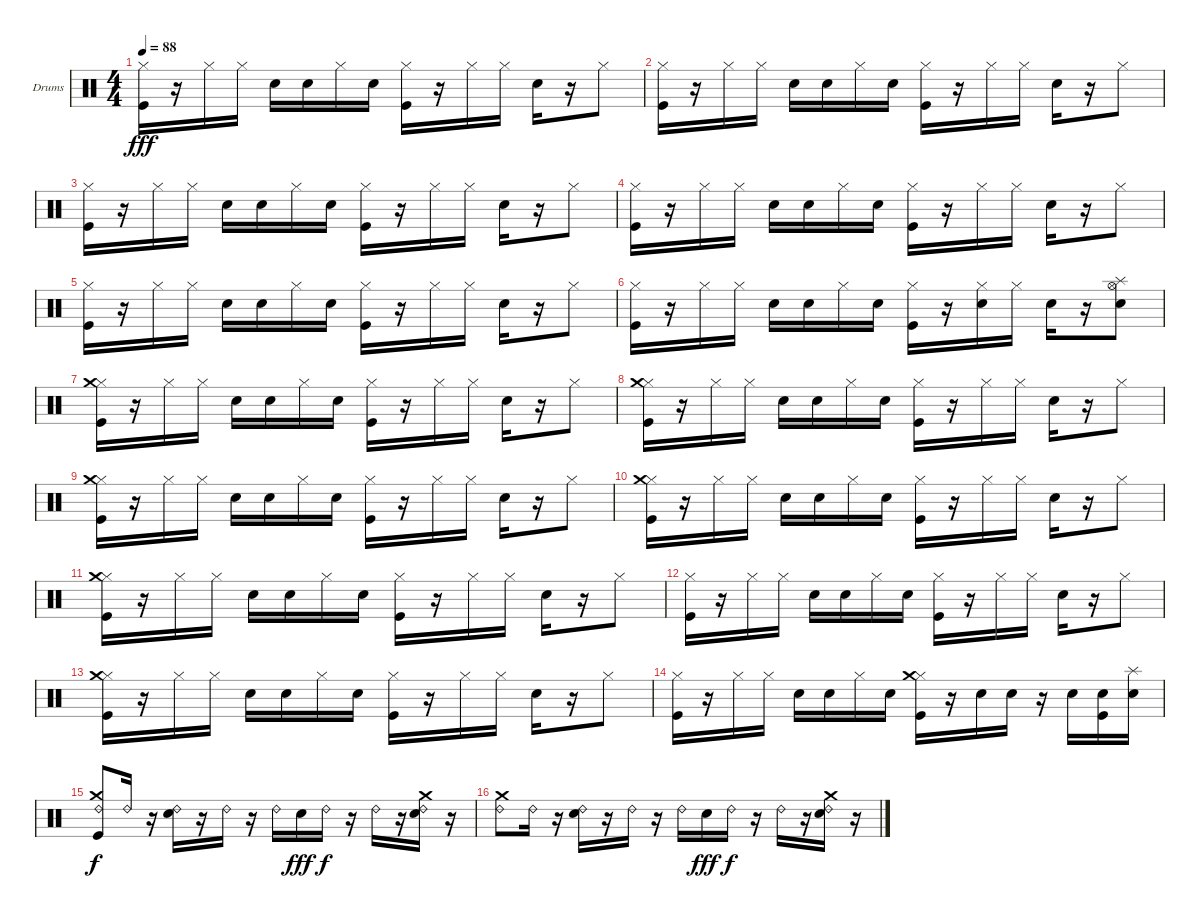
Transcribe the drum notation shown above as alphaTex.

\defaultSystemsLayout 4
\bracketExtendMode groupsimilarinstruments
\firstSystemTrackNameOrientation horizontal
\otherSystemsTrackNameOrientation horizontal
\track ("Drumkit" "Drums") {instrument percussion}
\staff {score}
\articulation defaults
\ts (4 4)
\tempo 88
\clef neutral
\ks c
("Hi-Hat (closed)" "Kick (hit)").16{dy fff} r.16 "Hi-Hat (closed)".16 "Hi-Hat (closed)".16 "Snare (hit) 2".16 "Snare (hit) 2".16 "Hi-Hat (closed)".16 "Snare (hit) 2".16 ("Hi-Hat (closed)" "Kick (hit)").16 r.16 "Hi-Hat (closed)".16 "Hi-Hat (closed)".16 "Snare (hit) 2".16 r.16 "Hi-Hat (closed)".8 |
("Hi-Hat (closed)" "Kick (hit)").16 r.16 "Hi-Hat (closed)".16 "Hi-Hat (closed)".16 "Snare (hit) 2".16 "Snare (hit) 2".16 "Hi-Hat (closed)".16 "Snare (hit) 2".16 ("Hi-Hat (closed)" "Kick (hit)").16 r.16 "Hi-Hat (closed)".16 "Hi-Hat (closed)".16 "Snare (hit) 2".16 r.16 "Hi-Hat (closed)".8 |
("Hi-Hat (closed)" "Kick (hit)").16 r.16 "Hi-Hat (closed)".16 "Hi-Hat (closed)".16 "Snare (hit) 2".16 "Snare (hit) 2".16 "Hi-Hat (closed)".16 "Snare (hit) 2".16 ("Hi-Hat (closed)" "Kick (hit)").16 r.16 "Hi-Hat (closed)".16 "Hi-Hat (closed)".16 "Snare (hit) 2".16 r.16 "Hi-Hat (closed)".8 |
("Hi-Hat (closed)" "Kick (hit)").16 r.16 "Hi-Hat (closed)".16 "Hi-Hat (closed)".16 "Snare (hit) 2".16 "Snare (hit) 2".16 "Hi-Hat (closed)".16 "Snare (hit) 2".16 ("Hi-Hat (closed)" "Kick (hit)").16 r.16 "Hi-Hat (closed)".16 "Hi-Hat (closed)".16 "Snare (hit) 2".16 r.16 "Hi-Hat (closed)".8 |
("Hi-Hat (closed)" "Kick (hit)").16 r.16 "Hi-Hat (closed)".16 "Hi-Hat (closed)".16 "Snare (hit) 2".16 "Snare (hit) 2".16 "Hi-Hat (closed)".16 "Snare (hit) 2".16 ("Hi-Hat (closed)" "Kick (hit)").16 r.16 "Hi-Hat (closed)".16 "Hi-Hat (closed)".16 "Snare (hit) 2".16 r.16 "Hi-Hat (closed)".8 |
("Hi-Hat (closed)" "Kick (hit)").16 r.16 "Hi-Hat (closed)".16 "Hi-Hat (closed)".16 "Snare (hit) 2".16 "Snare (hit) 2".16 "Hi-Hat (closed)".16 "Snare (hit) 2".16 ("Hi-Hat (closed)" "Kick (hit)").16 r.16 ("Hi-Hat (closed)" "Snare (hit) 2").16 "Hi-Hat (closed)".16 "Snare (hit) 2".16 r.16 ("Hi-Hat (open)" "Snare (hit) 2" "Splash (hit)").8 |
("Hi-Hat (closed)" "Kick (hit)" "Crash medium (hit)").16 r.16 "Hi-Hat (closed)".16 "Hi-Hat (closed)".16 "Snare (hit) 2".16 "Snare (hit) 2".16 "Hi-Hat (closed)".16 "Snare (hit) 2".16 ("Hi-Hat (closed)" "Kick (hit)").16 r.16 "Hi-Hat (closed)".16 "Hi-Hat (closed)".16 "Snare (hit) 2".16 r.16 "Hi-Hat (closed)".8 |
("Hi-Hat (closed)" "Kick (hit)" "Crash medium (hit)").16 r.16 "Hi-Hat (closed)".16 "Hi-Hat (closed)".16 "Snare (hit) 2".16 "Snare (hit) 2".16 "Hi-Hat (closed)".16 "Snare (hit) 2".16 ("Hi-Hat (closed)" "Kick (hit)").16 r.16 "Hi-Hat (closed)".16 "Hi-Hat (closed)".16 "Snare (hit) 2".16 r.16 "Hi-Hat (closed)".8 |
("Hi-Hat (closed)" "Kick (hit)" "Crash medium (hit)").16 r.16 "Hi-Hat (closed)".16 "Hi-Hat (closed)".16 "Snare (hit) 2".16 "Snare (hit) 2".16 "Hi-Hat (closed)".16 "Snare (hit) 2".16 ("Hi-Hat (closed)" "Kick (hit)").16 r.16 "Hi-Hat (closed)".16 "Hi-Hat (closed)".16 "Snare (hit) 2".16 r.16 "Hi-Hat (closed)".8 |
("Hi-Hat (closed)" "Kick (hit)" "Crash medium (hit)").16 r.16 "Hi-Hat (closed)".16 "Hi-Hat (closed)".16 "Snare (hit) 2".16 "Snare (hit) 2".16 "Hi-Hat (closed)".16 "Snare (hit) 2".16 ("Hi-Hat (closed)" "Kick (hit)").16 r.16 "Hi-Hat (closed)".16 "Hi-Hat (closed)".16 "Snare (hit) 2".16 r.16 "Hi-Hat (closed)".8 |
("Hi-Hat (closed)" "Kick (hit)" "Crash medium (hit)").16 r.16 "Hi-Hat (closed)".16 "Hi-Hat (closed)".16 "Snare (hit) 2".16 "Snare (hit) 2".16 "Hi-Hat (closed)".16 "Snare (hit) 2".16 ("Hi-Hat (closed)" "Kick (hit)").16 r.16 "Hi-Hat (closed)".16 "Hi-Hat (closed)".16 "Snare (hit) 2".16 r.16 "Hi-Hat (closed)".8 |
("Hi-Hat (closed)" "Kick (hit)").16 r.16 "Hi-Hat (closed)".16 "Hi-Hat (closed)".16 "Snare (hit) 2".16 "Snare (hit) 2".16 "Hi-Hat (closed)".16 "Snare (hit) 2".16 ("Hi-Hat (closed)" "Kick (hit)").16 r.16 "Hi-Hat (closed)".16 "Hi-Hat (closed)".16 "Snare (hit) 2".16 r.16 "Hi-Hat (closed)".8 |
("Hi-Hat (closed)" "Kick (hit)" "Crash medium (hit)").16 r.16 "Hi-Hat (closed)".16 "Hi-Hat (closed)".16 "Snare (hit) 2".16 "Snare (hit) 2".16 "Hi-Hat (closed)".16 "Snare (hit) 2".16 ("Hi-Hat (closed)" "Kick (hit)").16 r.16 "Hi-Hat (closed)".16 "Hi-Hat (closed)".16 "Snare (hit) 2".16 r.16 "Hi-Hat (closed)".8 |
("Hi-Hat (closed)" "Kick (hit)").16 r.16 "Hi-Hat (closed)".16 "Hi-Hat (closed)".16 "Snare (hit) 2".16 "Snare (hit) 2".16 "Hi-Hat (closed)".16 "Snare (hit) 2".16 ("Hi-Hat (closed)" "Kick (hit)" "Crash medium (hit)").16 r.16 "Snare (hit) 2".16 "Snare (hit) 2".16 r.16 "Snare (hit) 2".16 ("Snare (hit) 2" "Kick (hit)").16 ("Snare (hit) 2" "Splash (hit)").16 |
("Ride (bell) 2" "Crash medium (hit)" "Kick (hit)").8{dy f} "Ride (bell) 2".16 r.16 ("Ride (bell) 2" "Snare (hit) 2").16 r.16 "Ride (bell) 2".16 r.16 "Ride (bell) 2".16 "Snare (hit) 2".16{dy fff} "Ride (bell) 2".16{dy f} r.16 "Ride (bell) 2".16 r.16 ("Ride (bell) 2" "Snare (hit) 2" "Crash medium (hit)").16 r.16 |
("Ride (bell) 2" "Crash medium (hit)").8 "Ride (bell) 2".16 r.16 ("Ride (bell) 2" "Snare (hit) 2").16 r.16 "Ride (bell) 2".16 r.16 "Ride (bell) 2".16 "Snare (hit) 2".16{dy fff} "Ride (bell) 2".16{dy f} r.16 "Ride (bell) 2".16 r.16 ("Ride (bell) 2" "Snare (hit) 2" "Crash medium (hit)").16 r.16
